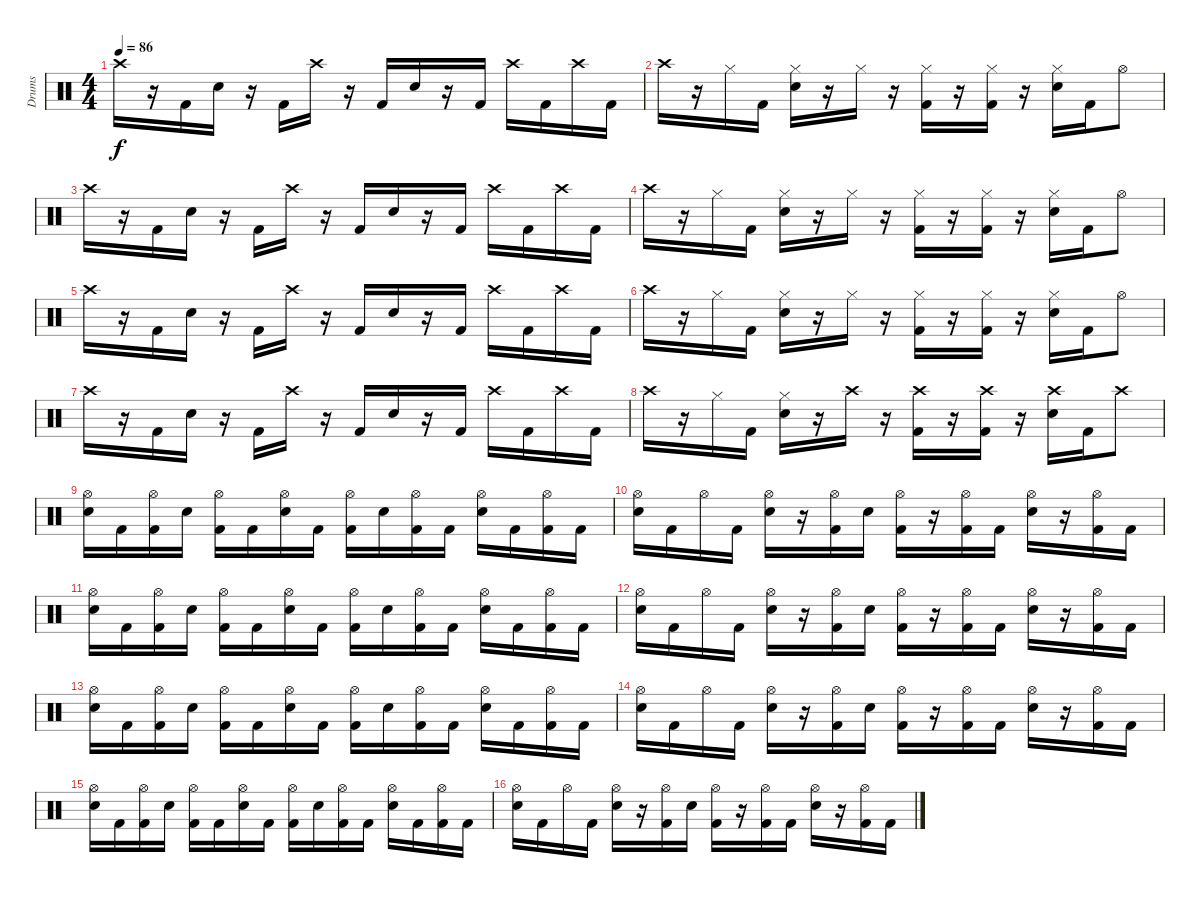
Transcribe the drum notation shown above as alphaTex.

\track ("Drums" "Drums") {instrument percussion}
\staff {score}
\articulation defaults
\ts (4 4)
\tempo 86
\clef neutral
\ks c "Crash high (hit)".16{dy f}
r.16 "Kick (hit) 2".16 "Snare (hit) 2".16 r.16 "Kick (hit) 2".16 "Crash high (hit)".16 r.16 "Kick (hit) 2".16 "Snare (hit) 2".16 r.16 "Kick (hit) 2".16 "Crash high (hit)".16 "Kick (hit) 2".16 "Crash high (hit)".16 "Kick (hit) 2".16 |
"Crash high (hit)".16 r.16 "Hi-Hat (closed)".16 "Kick (hit) 2".16 ("Hi-Hat (closed)" "Snare (hit) 2").16 r.16 "Hi-Hat (closed)".16 r.16 ("Hi-Hat (closed)" "Kick (hit) 2").16 r.16 ("Hi-Hat (closed)" "Kick (hit) 2").16 r.16 ("Hi-Hat (closed)" "Snare (hit) 2").16 "Kick (hit) 2".16 "Hi-Hat (open)".8 |
"Crash high (hit)".16 r.16 "Kick (hit) 2".16 "Snare (hit) 2".16 r.16 "Kick (hit) 2".16 "Crash high (hit)".16 r.16 "Kick (hit) 2".16 "Snare (hit) 2".16 r.16 "Kick (hit) 2".16 "Crash high (hit)".16 "Kick (hit) 2".16 "Crash high (hit)".16 "Kick (hit) 2".16 |
"Crash high (hit)".16 r.16 "Hi-Hat (closed)".16 "Kick (hit) 2".16 ("Hi-Hat (closed)" "Snare (hit) 2").16 r.16 "Hi-Hat (closed)".16 r.16 ("Hi-Hat (closed)" "Kick (hit) 2").16 r.16 ("Hi-Hat (closed)" "Kick (hit) 2").16 r.16 ("Hi-Hat (closed)" "Snare (hit) 2").16 "Kick (hit) 2".16 "Hi-Hat (open)".8 |
"Crash high (hit)".16 r.16 "Kick (hit) 2".16 "Snare (hit) 2".16 r.16 "Kick (hit) 2".16 "Crash high (hit)".16 r.16 "Kick (hit) 2".16 "Snare (hit) 2".16 r.16 "Kick (hit) 2".16 "Crash high (hit)".16 "Kick (hit) 2".16 "Crash high (hit)".16 "Kick (hit) 2".16 |
"Crash high (hit)".16 r.16 "Hi-Hat (closed)".16 "Kick (hit) 2".16 ("Hi-Hat (closed)" "Snare (hit) 2").16 r.16 "Hi-Hat (closed)".16 r.16 ("Hi-Hat (closed)" "Kick (hit) 2").16 r.16 ("Hi-Hat (closed)" "Kick (hit) 2").16 r.16 ("Hi-Hat (closed)" "Snare (hit) 2").16 "Kick (hit) 2".16 "Hi-Hat (open)".8 |
"Crash high (hit)".16 r.16 "Kick (hit) 2".16 "Snare (hit) 2".16 r.16 "Kick (hit) 2".16 "Crash high (hit)".16 r.16 "Kick (hit) 2".16 "Snare (hit) 2".16 r.16 "Kick (hit) 2".16 "Crash high (hit)".16 "Kick (hit) 2".16 "Crash high (hit)".16 "Kick (hit) 2".16 |
"Crash high (hit)".16 r.16 "Hi-Hat (closed)".16 "Kick (hit) 2".16 ("Hi-Hat (closed)" "Snare (hit) 2").16 r.16 "Crash high (hit)".16 r.16 ("Crash high (hit)" "Kick (hit) 2").16 r.16 ("Crash high (hit)" "Kick (hit) 2").16 r.16 ("Crash high (hit)" "Snare (hit) 2").16 "Kick (hit) 2".16 "Crash high (hit)".8 |
("Hi-Hat (open)" "Electric Snare (hit)").16 "Kick (hit) 2".16 ("Hi-Hat (open)" "Kick (hit) 2").16 "Electric Snare (hit)".16 ("Hi-Hat (open)" "Kick (hit) 2").16 "Kick (hit) 2".16 ("Hi-Hat (open)" "Electric Snare (hit)").16 "Kick (hit) 2".16 ("Hi-Hat (open)" "Kick (hit) 2").16 "Electric Snare (hit)".16 ("Hi-Hat (open)" "Kick (hit) 2").16 "Kick (hit) 2".16 ("Hi-Hat (open)" "Electric Snare (hit)").16 "Kick (hit) 2".16 ("Hi-Hat (open)" "Kick (hit) 2").16 "Kick (hit) 2".16 |
("Hi-Hat (open)" "Electric Snare (hit)").16 "Kick (hit) 2".16 "Hi-Hat (open)".16 "Kick (hit) 2".16 ("Hi-Hat (open)" "Electric Snare (hit)").16 r.16 ("Hi-Hat (open)" "Kick (hit) 2").16 "Electric Snare (hit)".16 ("Hi-Hat (open)" "Kick (hit) 2").16 r.16 ("Hi-Hat (open)" "Kick (hit) 2").16 "Kick (hit) 2".16 ("Hi-Hat (open)" "Electric Snare (hit)").16 r.16 ("Hi-Hat (open)" "Kick (hit) 2").16 "Kick (hit) 2".16 |
("Hi-Hat (open)" "Electric Snare (hit)").16 "Kick (hit) 2".16 ("Hi-Hat (open)" "Kick (hit) 2").16 "Electric Snare (hit)".16 ("Hi-Hat (open)" "Kick (hit) 2").16 "Kick (hit) 2".16 ("Hi-Hat (open)" "Electric Snare (hit)").16 "Kick (hit) 2".16 ("Hi-Hat (open)" "Kick (hit) 2").16 "Electric Snare (hit)".16 ("Hi-Hat (open)" "Kick (hit) 2").16 "Kick (hit) 2".16 ("Hi-Hat (open)" "Electric Snare (hit)").16 "Kick (hit) 2".16 ("Hi-Hat (open)" "Kick (hit) 2").16 "Kick (hit) 2".16 |
("Hi-Hat (open)" "Electric Snare (hit)").16 "Kick (hit) 2".16 "Hi-Hat (open)".16 "Kick (hit) 2".16 ("Hi-Hat (open)" "Electric Snare (hit)").16 r.16 ("Hi-Hat (open)" "Kick (hit) 2").16 "Electric Snare (hit)".16 ("Hi-Hat (open)" "Kick (hit) 2").16 r.16 ("Hi-Hat (open)" "Kick (hit) 2").16 "Kick (hit) 2".16 ("Hi-Hat (open)" "Electric Snare (hit)").16 r.16 ("Hi-Hat (open)" "Kick (hit) 2").16 "Kick (hit) 2".16 |
("Hi-Hat (open)" "Electric Snare (hit)").16 "Kick (hit) 2".16 ("Hi-Hat (open)" "Kick (hit) 2").16 "Electric Snare (hit)".16 ("Hi-Hat (open)" "Kick (hit) 2").16 "Kick (hit) 2".16 ("Hi-Hat (open)" "Electric Snare (hit)").16 "Kick (hit) 2".16 ("Hi-Hat (open)" "Kick (hit) 2").16 "Electric Snare (hit)".16 ("Hi-Hat (open)" "Kick (hit) 2").16 "Kick (hit) 2".16 ("Hi-Hat (open)" "Electric Snare (hit)").16 "Kick (hit) 2".16 ("Hi-Hat (open)" "Kick (hit) 2").16 "Kick (hit) 2".16 |
("Hi-Hat (open)" "Electric Snare (hit)").16 "Kick (hit) 2".16 "Hi-Hat (open)".16 "Kick (hit) 2".16 ("Hi-Hat (open)" "Electric Snare (hit)").16 r.16 ("Hi-Hat (open)" "Kick (hit) 2").16 "Electric Snare (hit)".16 ("Hi-Hat (open)" "Kick (hit) 2").16 r.16 ("Hi-Hat (open)" "Kick (hit) 2").16 "Kick (hit) 2".16 ("Hi-Hat (open)" "Electric Snare (hit)").16 r.16 ("Hi-Hat (open)" "Kick (hit) 2").16 "Kick (hit) 2".16 |
("Hi-Hat (open)" "Electric Snare (hit)").16 "Kick (hit) 2".16 ("Hi-Hat (open)" "Kick (hit) 2").16 "Electric Snare (hit)".16 ("Hi-Hat (open)" "Kick (hit) 2").16 "Kick (hit) 2".16 ("Hi-Hat (open)" "Electric Snare (hit)").16 "Kick (hit) 2".16 ("Hi-Hat (open)" "Kick (hit) 2").16 "Electric Snare (hit)".16 ("Hi-Hat (open)" "Kick (hit) 2").16 "Kick (hit) 2".16 ("Hi-Hat (open)" "Electric Snare (hit)").16 "Kick (hit) 2".16 ("Hi-Hat (open)" "Kick (hit) 2").16 "Kick (hit) 2".16 |
("Hi-Hat (open)" "Electric Snare (hit)").16 "Kick (hit) 2".16 "Hi-Hat (open)".16 "Kick (hit) 2".16 ("Hi-Hat (open)" "Electric Snare (hit)").16 r.16 ("Hi-Hat (open)" "Kick (hit) 2").16 "Electric Snare (hit)".16 ("Hi-Hat (open)" "Kick (hit) 2").16 r.16 ("Hi-Hat (open)" "Kick (hit) 2").16 "Kick (hit) 2".16 ("Hi-Hat (open)" "Electric Snare (hit)").16 r.16 ("Hi-Hat (open)" "Kick (hit) 2").16 "Kick (hit) 2".16
